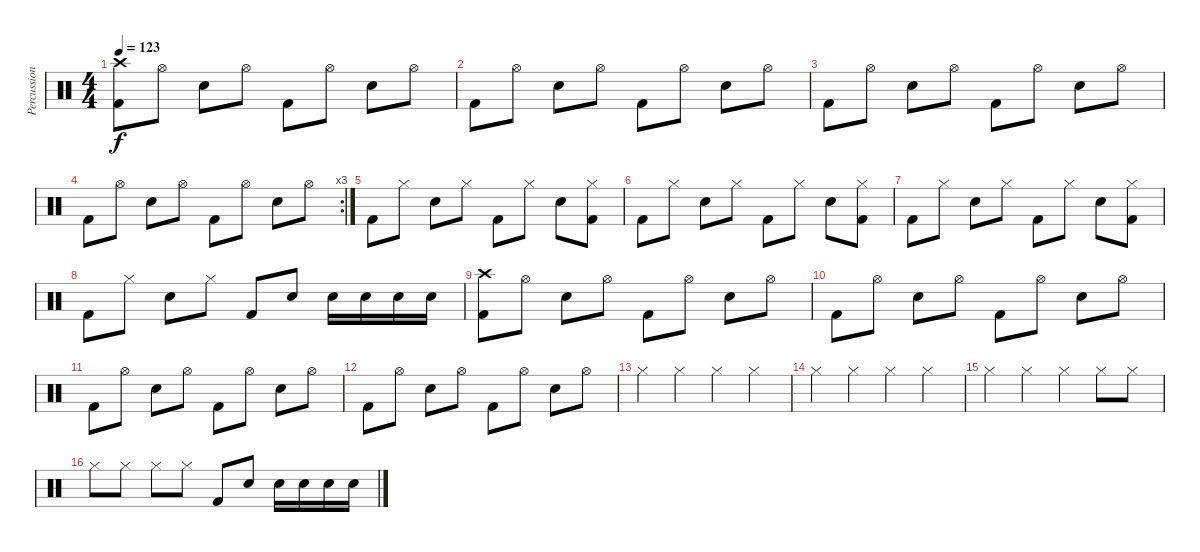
\track ("Percussions" "Percussion") {instrument percussion}
\staff {score}
\articulation defaults
\ts (4 4)
\tempo 123
\clef neutral
\ks c
("Kick (hit) 2" "Crash high (hit)").8{dy f} "Hi-Hat (open)".8 "Snare (hit) 2".8 "Hi-Hat (open)".8 "Kick (hit) 2".8 "Hi-Hat (open)".8 "Snare (hit) 2".8 "Hi-Hat (open)".8 |
"Kick (hit) 2".8 "Hi-Hat (open)".8 "Snare (hit) 2".8 "Hi-Hat (open)".8 "Kick (hit) 2".8 "Hi-Hat (open)".8 "Snare (hit) 2".8 "Hi-Hat (open)".8 |
"Kick (hit) 2".8 "Hi-Hat (open)".8 "Snare (hit) 2".8 "Hi-Hat (open)".8 "Kick (hit) 2".8 "Hi-Hat (open)".8 "Snare (hit) 2".8 "Hi-Hat (open)".8 |
\rc 3 "Kick (hit) 2".8 "Hi-Hat (open)".8 "Snare (hit) 2".8 "Hi-Hat (open)".8 "Kick (hit) 2".8 "Hi-Hat (open)".8 "Snare (hit) 2".8 "Hi-Hat (open)".8
|
"Kick (hit) 2".8 "Hi-Hat (closed)".8 "Snare (hit) 2".8 "Hi-Hat (closed)".8 "Kick (hit) 2".8 "Hi-Hat (closed)".8 "Snare (hit) 2".8 ("Hi-Hat (closed)" "Kick (hit) 2").8 |
"Kick (hit) 2".8 "Hi-Hat (closed)".8 "Snare (hit) 2".8 "Hi-Hat (closed)".8 "Kick (hit) 2".8 "Hi-Hat (closed)".8 "Snare (hit) 2".8 ("Hi-Hat (closed)" "Kick (hit) 2").8 |
"Kick (hit) 2".8 "Hi-Hat (closed)".8 "Snare (hit) 2".8 "Hi-Hat (closed)".8 "Kick (hit) 2".8 "Hi-Hat (closed)".8 "Snare (hit) 2".8 ("Hi-Hat (closed)" "Kick (hit) 2").8 |
"Kick (hit) 2".8 "Hi-Hat (closed)".8 "Snare (hit) 2".8 "Hi-Hat (closed)".8 "Kick (hit) 2".8 "Snare (hit) 2".8 "Snare (hit) 2".16 "Snare (hit) 2".16 "Snare (hit) 2".16 "Snare (hit) 2".16 |
("Kick (hit) 2" "Crash high (hit)").8 "Hi-Hat (open)".8 "Snare (hit) 2".8 "Hi-Hat (open)".8 "Kick (hit) 2".8 "Hi-Hat (open)".8 "Snare (hit) 2".8 "Hi-Hat (open)".8 |
"Kick (hit) 2".8 "Hi-Hat (open)".8 "Snare (hit) 2".8 "Hi-Hat (open)".8 "Kick (hit) 2".8 "Hi-Hat (open)".8 "Snare (hit) 2".8 "Hi-Hat (open)".8 |
"Kick (hit) 2".8 "Hi-Hat (open)".8 "Snare (hit) 2".8 "Hi-Hat (open)".8 "Kick (hit) 2".8 "Hi-Hat (open)".8 "Snare (hit) 2".8 "Hi-Hat (open)".8 |
"Kick (hit) 2".8 "Hi-Hat (open)".8 "Snare (hit) 2".8 "Hi-Hat (open)".8 "Kick (hit) 2".8 "Hi-Hat (open)".8 "Snare (hit) 2".8 "Hi-Hat (open)".8 |
"Hi-Hat (closed)".4 "Hi-Hat (closed)".4 "Hi-Hat (closed)".4 "Hi-Hat (closed)".4 |
"Hi-Hat (closed)".4 "Hi-Hat (closed)".4 "Hi-Hat (closed)".4 "Hi-Hat (closed)".4 |
"Hi-Hat (closed)".4 "Hi-Hat (closed)".4 "Hi-Hat (closed)".4 "Hi-Hat (closed)".8 "Hi-Hat (closed)".8 |
"Hi-Hat (closed)".8 "Hi-Hat (closed)".8 "Hi-Hat (closed)".8 "Hi-Hat (closed)".8 "Kick (hit) 2".8 "Snare (hit) 2".8 "Snare (hit) 2".16 "Snare (hit) 2".16 "Snare (hit) 2".16 "Snare (hit) 2".16
